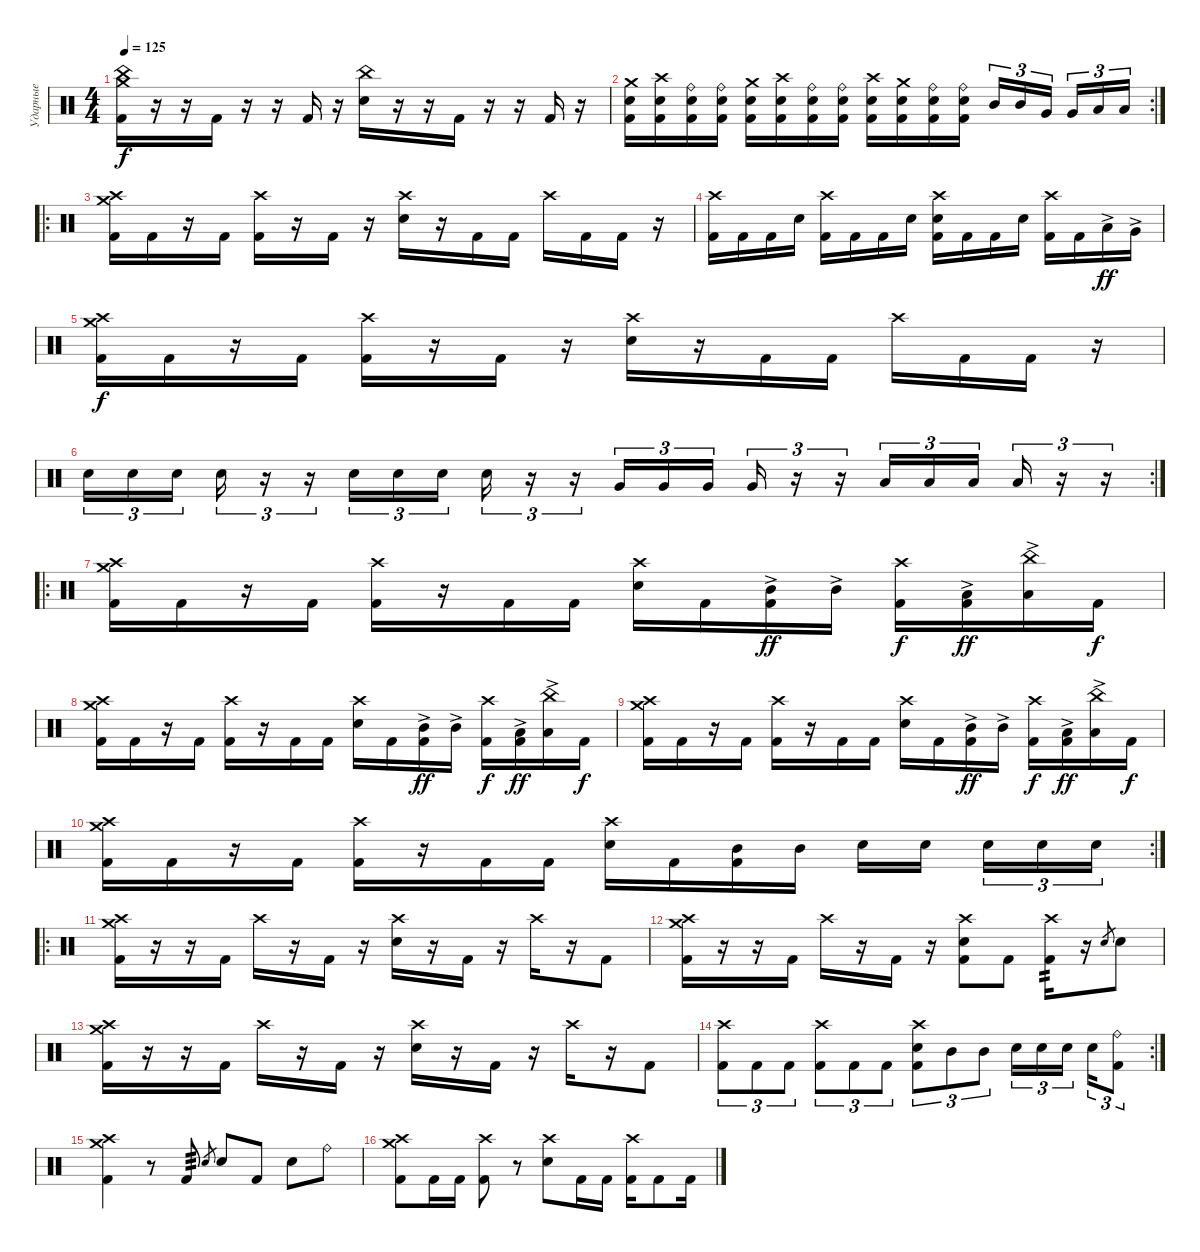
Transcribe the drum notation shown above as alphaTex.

\track ("Ударные" "Ударные") {instrument percussion}
\staff {score}
\articulation defaults
\ts (4 4)
\tempo 125
\clef neutral
\ks c
("China (hit)" "Crash medium (hit)" "Kick (hit) 2").16{dy f} r.16 r.16 "Kick (hit) 2".16 r.16 r.16 "Kick (hit) 2".16 r.16 ("China (hit)" "Snare (hit) 2").16 r.16 r.16 "Kick (hit) 2".16 r.16 r.16 "Kick (hit) 2".16 r.16 |
\rc 2
("Crash medium (hit)" "Snare (hit) 2" "Kick (hit) 2").16 ("Crash high (hit)" "Snare (hit) 2" "Kick (hit) 2").16 ("Ride (bell)" "Snare (hit) 2" "Kick (hit) 2").16 ("Ride (bell)" "Snare (hit) 2" "Kick (hit) 2").16 ("Crash medium (hit)" "Snare (hit) 2" "Kick (hit) 2").16 ("Crash high (hit)" "Snare (hit) 2" "Kick (hit) 2").16 ("Ride (bell)" "Snare (hit) 2" "Kick (hit) 2").16 ("Ride (bell)" "Snare (hit) 2" "Kick (hit) 2").16 ("Crash high (hit)" "Snare (hit) 2" "Kick (hit) 2").16 ("Crash medium (hit)" "Snare (hit) 2" "Kick (hit) 2").16 ("Ride (bell)" "Snare (hit) 2" "Kick (hit) 2").16 ("Ride (bell)" "Snare (hit) 2" "Kick (hit) 2").16 "Mid Tom (hit)".16{tu (3 2)} "Mid Tom (hit)".16{tu (3 2)} "Very Low Tom (hit)".16{tu (3 2) beam splitsecondary} "Very Low Tom (hit)".16{tu (3 2)} "Low Floor Tom (hit)".16{tu (3 2)} "Low Floor Tom (hit)".16{tu (3 2)} |
\ro
("Crash medium (hit)" "Crash high (hit)" "Kick (hit) 2").16 "Kick (hit) 2".16 r.16 "Kick (hit) 2".16 ("Crash high (hit)" "Kick (hit) 2").16 r.16 "Kick (hit) 2".16 r.16 ("Crash high (hit)" "Snare (hit) 2").16 r.16 "Kick (hit) 2".16 "Kick (hit) 2".16 "Crash high (hit)".16 "Kick (hit) 2".16 "Kick (hit) 2".16 r.16 |
("Crash high (hit)" "Kick (hit) 2").16 "Kick (hit) 2".16 "Kick (hit) 2".16 "Snare (hit)".16 ("Crash high (hit)" "Kick (hit) 2").16 "Kick (hit) 2".16 "Kick (hit) 2".16 "Snare (hit)".16 ("Crash high (hit)" "Snare (hit) 2" "Kick (hit) 2").16 "Kick (hit) 2".16 "Kick (hit) 2".16 "Snare (hit)".16 ("Crash high (hit)" "Kick (hit) 2").16 "Kick (hit) 2".16 "Low Floor Tom (hit)"{ac}.16{dy ff} "Very Low Tom (hit)"{ac}.16 |
("Crash medium (hit)" "Crash high (hit)" "Kick (hit) 2").16{dy f} "Kick (hit) 2".16 r.16 "Kick (hit) 2".16 ("Crash high (hit)" "Kick (hit) 2").16 r.16 "Kick (hit) 2".16 r.16 ("Crash high (hit)" "Snare (hit) 2").16 r.16 "Kick (hit) 2".16 "Kick (hit) 2".16 "Crash high (hit)".16 "Kick (hit) 2".16 "Kick (hit) 2".16 r.16 |
\rc 2 "Snare (hit) 2".16{tu (3 2)} "Snare (hit) 2".16{tu (3 2)} "Snare (hit) 2".16{tu (3 2) beam splitsecondary} "Snare (hit) 2".16{tu (3 2)}
r.16{tu (3 2)} r.16{tu (3 2)} "Snare (hit) 2".16{tu (3 2)} "Snare (hit) 2".16{tu (3 2)} "Snare (hit) 2".16{tu (3 2) beam splitsecondary} "Snare (hit) 2".16{tu (3 2)} r.16{tu (3 2)} r.16{tu (3 2)} "Very Low Tom (hit)".16{tu (3 2)} "Very Low Tom (hit)".16{tu (3 2)} "Very Low Tom (hit)".16{tu (3 2) beam splitsecondary} "Very Low Tom (hit)".16{tu (3 2)} r.16{tu (3 2)} r.16{tu (3 2)} "Low Floor Tom (hit)".16{tu (3 2)} "Low Floor Tom (hit)".16{tu (3 2)} "Low Floor Tom (hit)".16{tu (3 2) beam splitsecondary} "Low Floor Tom (hit)".16{tu (3 2)} r.16{tu (3 2)} r.16{tu (3 2)} |
\ro
("Crash high (hit)" "Crash medium (hit)" "Kick (hit) 2").16 "Kick (hit) 2".16 r.16 "Kick (hit) 2".16 ("Crash high (hit)" "Kick (hit) 2").16 r.16 "Kick (hit) 2".16 "Kick (hit) 2".16 ("Crash high (hit)" "Snare (hit) 2").16 "Kick (hit) 2".16 ("Mid Tom (hit)"{ac} "Kick (hit) 2").16{dy ff} "Mid Tom (hit)"{ac}.16 ("Crash high (hit)" "Kick (hit) 2").16{dy f} ("Low Tom (hit)"{ac} "Kick (hit) 2").16{dy ff} ("China (hit)" "Low Tom (hit)"{ac}).16 "Kick (hit) 2".16{dy f} |
("Crash high (hit)" "Crash medium (hit)" "Kick (hit) 2").16 "Kick (hit) 2".16 r.16 "Kick (hit) 2".16 ("Crash high (hit)" "Kick (hit) 2").16 r.16 "Kick (hit) 2".16 "Kick (hit) 2".16 ("Crash high (hit)" "Snare (hit) 2").16 "Kick (hit) 2".16 ("Mid Tom (hit)"{ac} "Kick (hit) 2").16{dy ff} "Mid Tom (hit)"{ac}.16 ("Crash high (hit)" "Kick (hit) 2").16{dy f} ("Low Tom (hit)"{ac} "Kick (hit) 2").16{dy ff} ("China (hit)" "Low Tom (hit)"{ac}).16 "Kick (hit) 2".16{dy f} |
("Crash high (hit)" "Crash medium (hit)" "Kick (hit) 2").16 "Kick (hit) 2".16 r.16 "Kick (hit) 2".16 ("Crash high (hit)" "Kick (hit) 2").16 r.16 "Kick (hit) 2".16 "Kick (hit) 2".16 ("Crash high (hit)" "Snare (hit) 2").16 "Kick (hit) 2".16 ("Mid Tom (hit)"{ac} "Kick (hit) 2").16{dy ff} "Mid Tom (hit)"{ac}.16 ("Crash high (hit)" "Kick (hit) 2").16{dy f} ("Low Tom (hit)"{ac} "Kick (hit) 2").16{dy ff} ("China (hit)" "Low Tom (hit)"{ac}).16 "Kick (hit) 2".16{dy f} |
\rc 2
("Crash high (hit)" "Crash medium (hit)" "Kick (hit) 2").16 "Kick (hit) 2".16 r.16 "Kick (hit) 2".16 ("Crash high (hit)" "Kick (hit) 2").16 r.16 "Kick (hit) 2".16 "Kick (hit) 2".16 ("Crash high (hit)" "Snare (hit) 2").16 "Kick (hit) 2".16 ("Mid Tom (hit)" "Kick (hit) 2").16 "Mid Tom (hit)".16 "Snare (hit) 2".16 "Snare (hit) 2".16{beam splitsecondary} "Snare (hit) 2".16{tu (3 2)} "Snare (hit) 2".16{tu (3 2)} "Snare (hit) 2".16{tu (3 2)} |
\ro
("Crash high (hit)" "Crash medium (hit)" "Kick (hit) 2").16 r.16 r.16 "Kick (hit) 2".16 "Crash high (hit)".16 r.16 "Kick (hit) 2".16 r.16 ("Crash high (hit)" "Snare (hit) 2").16 r.16 "Kick (hit) 2".16 r.16 "Crash high (hit)".16 r.16 "Kick (hit) 2".8 |
("Crash high (hit)" "Crash medium (hit)" "Kick (hit) 2").16 r.16 r.16 "Kick (hit) 2".16 "Crash high (hit)".16 r.16 "Kick (hit) 2".16 r.16 ("Crash high (hit)" "Snare (hit) 2" "Kick (hit) 2").8 "Kick (hit) 2".8 ("Crash high (hit)" "Kick (hit) 2").16{tp 2} r.16 "Electric Snare (hit)".8{gr} "Electric Snare (hit)".8 |
("Crash high (hit)" "Crash medium (hit)" "Kick (hit) 2").16 r.16 r.16 "Kick (hit) 2".16 "Crash high (hit)".16 r.16 "Kick (hit) 2".16 r.16 ("Crash high (hit)" "Snare (hit) 2").16 r.16 "Kick (hit) 2".16 r.16 "Crash high (hit)".16 r.16 "Kick (hit) 2".8 |
\rc 2
("Crash high (hit)" "Kick (hit) 2").8{tu (3 2)} "Kick (hit) 2".8{tu (3 2)} "Kick (hit) 2".8{tu (3 2)} ("Crash high (hit)" "Kick (hit) 2").8{tu (3 2)} "Kick (hit) 2".8{tu (3 2)} "Kick (hit) 2".8{tu (3 2)} ("Snare (hit) 2" "Crash high (hit)" "Kick (hit) 2").8{tu (3 2)} "Mid Tom (hit)".8{tu (3 2)} "Mid Tom (hit)".8{tu (3 2)} "Snare (hit) 2".16{tu (3 2)} "Snare (hit) 2".16{tu (3 2)} "Snare (hit) 2".16{tu (3 2) beam splitsecondary} "Snare (hit) 2".16{tu (3 2)} ("Ride (bell)" "Kick (hit) 2").8{tu (3 2)} |
("Crash medium (hit)" "Crash high (hit)" "Kick (hit) 2").4 r.8 "Kick (hit) 2".8{tp 3} "Electric Snare (hit)".8{gr} "Electric Snare (hit)".8 "Kick (hit) 2".8 "Electric Snare (hit)".8 "Ride (bell)".8 |
("Crash high (hit)" "Crash medium (hit)" "Kick (hit) 2").8 "Kick (hit) 2".16 "Kick (hit) 2".16 ("Crash high (hit)" "Kick (hit) 2").8 r.8 ("Crash high (hit)" "Snare (hit) 2").8 "Kick (hit) 2".16 "Kick (hit) 2".16 ("Crash high (hit)" "Kick (hit) 2").16 "Kick (hit) 2".8 "Kick (hit) 2".16
